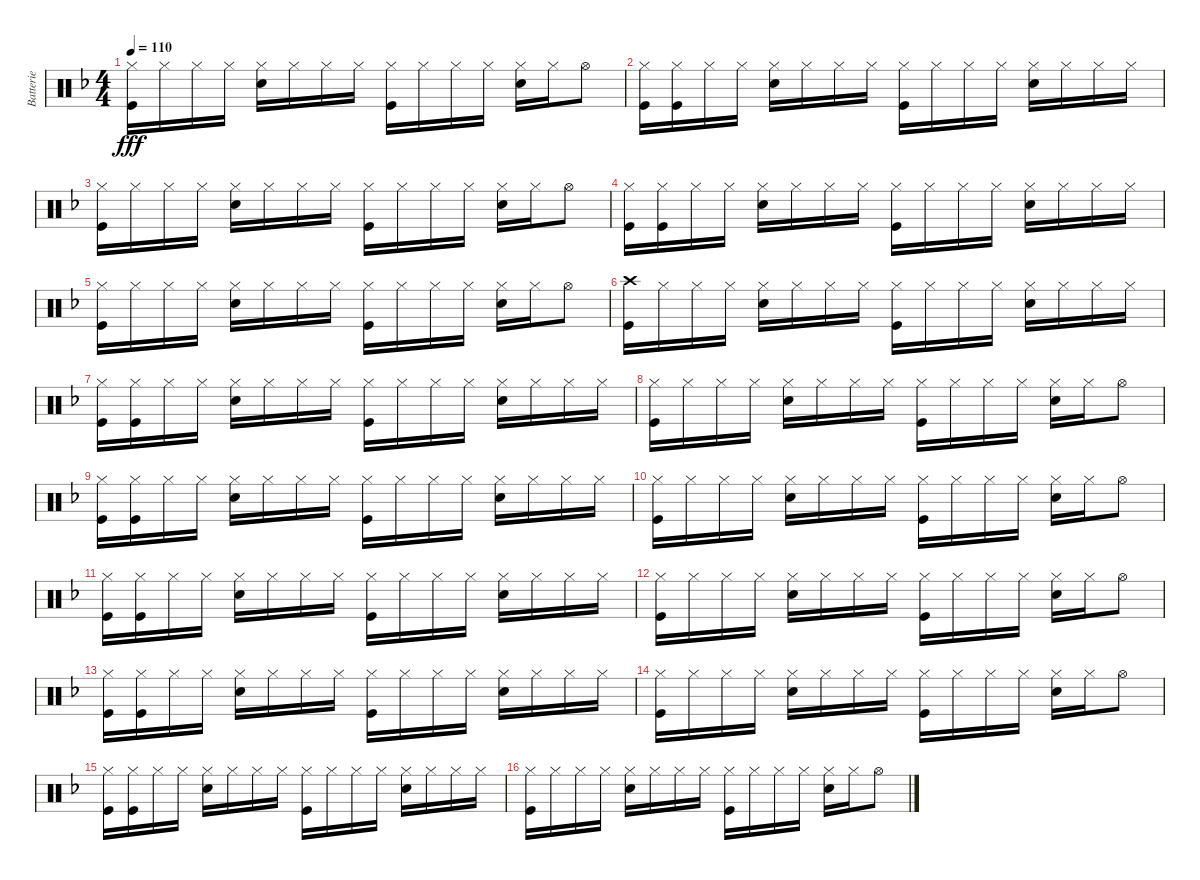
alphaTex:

\track ("Batterie" "Batterie") {instrument percussion}
\staff {score}
\articulation defaults
\ts (4 4)
\tempo 110
\clef neutral
\ks f
("Hi-Hat (closed)" "Kick (hit)").16{dy fff} "Hi-Hat (closed)".16 "Hi-Hat (closed)".16 "Hi-Hat (closed)".16 ("Hi-Hat (closed)" "Snare (hit) 2").16 "Hi-Hat (closed)".16 "Hi-Hat (closed)".16 "Hi-Hat (closed)".16 ("Hi-Hat (closed)" "Kick (hit)").16 "Hi-Hat (closed)".16 "Hi-Hat (closed)".16 "Hi-Hat (closed)".16 ("Hi-Hat (closed)" "Snare (hit) 2").16 "Hi-Hat (closed)".16 "Hi-Hat (open)".8 |
("Hi-Hat (closed)" "Kick (hit)").16 ("Hi-Hat (closed)" "Kick (hit)").16 "Hi-Hat (closed)".16 "Hi-Hat (closed)".16 ("Hi-Hat (closed)" "Snare (hit) 2").16 "Hi-Hat (closed)".16 "Hi-Hat (closed)".16 "Hi-Hat (closed)".16 ("Hi-Hat (closed)" "Kick (hit)").16 "Hi-Hat (closed)".16 "Hi-Hat (closed)".16 "Hi-Hat (closed)".16 ("Hi-Hat (closed)" "Snare (hit) 2").16 "Hi-Hat (closed)".16 "Hi-Hat (closed)".16 "Hi-Hat (closed)".16 |
("Hi-Hat (closed)" "Kick (hit)").16 "Hi-Hat (closed)".16 "Hi-Hat (closed)".16 "Hi-Hat (closed)".16 ("Hi-Hat (closed)" "Snare (hit) 2").16 "Hi-Hat (closed)".16 "Hi-Hat (closed)".16 "Hi-Hat (closed)".16 ("Hi-Hat (closed)" "Kick (hit)").16 "Hi-Hat (closed)".16 "Hi-Hat (closed)".16 "Hi-Hat (closed)".16 ("Hi-Hat (closed)" "Snare (hit) 2").16 "Hi-Hat (closed)".16 "Hi-Hat (open)".8 |
("Hi-Hat (closed)" "Kick (hit)").16 ("Hi-Hat (closed)" "Kick (hit)").16 "Hi-Hat (closed)".16 "Hi-Hat (closed)".16 ("Hi-Hat (closed)" "Snare (hit) 2").16 "Hi-Hat (closed)".16 "Hi-Hat (closed)".16 "Hi-Hat (closed)".16 ("Hi-Hat (closed)" "Kick (hit)").16 "Hi-Hat (closed)".16 "Hi-Hat (closed)".16 "Hi-Hat (closed)".16 ("Hi-Hat (closed)" "Snare (hit) 2").16 "Hi-Hat (closed)".16 "Hi-Hat (closed)".16 "Hi-Hat (closed)".16 |
("Hi-Hat (closed)" "Kick (hit)").16 "Hi-Hat (closed)".16 "Hi-Hat (closed)".16 "Hi-Hat (closed)".16 ("Hi-Hat (closed)" "Snare (hit) 2").16 "Hi-Hat (closed)".16 "Hi-Hat (closed)".16 "Hi-Hat (closed)".16 ("Hi-Hat (closed)" "Kick (hit)").16 "Hi-Hat (closed)".16 "Hi-Hat (closed)".16 "Hi-Hat (closed)".16 ("Hi-Hat (closed)" "Snare (hit) 2").16 "Hi-Hat (closed)".16 "Hi-Hat (open)".8 |
("Crash high (hit)" "Kick (hit)").16 "Hi-Hat (closed)".16 "Hi-Hat (closed)".16 "Hi-Hat (closed)".16 ("Hi-Hat (closed)" "Snare (hit) 2").16 "Hi-Hat (closed)".16 "Hi-Hat (closed)".16 "Hi-Hat (closed)".16 ("Hi-Hat (closed)" "Kick (hit)").16 "Hi-Hat (closed)".16 "Hi-Hat (closed)".16 "Hi-Hat (closed)".16 ("Hi-Hat (closed)" "Snare (hit) 2").16 "Hi-Hat (closed)".16 "Hi-Hat (closed)".16 "Hi-Hat (closed)".16 |
("Hi-Hat (closed)" "Kick (hit)").16 ("Hi-Hat (closed)" "Kick (hit)").16 "Hi-Hat (closed)".16 "Hi-Hat (closed)".16 ("Hi-Hat (closed)" "Snare (hit) 2").16 "Hi-Hat (closed)".16 "Hi-Hat (closed)".16 "Hi-Hat (closed)".16 ("Hi-Hat (closed)" "Kick (hit)").16 "Hi-Hat (closed)".16 "Hi-Hat (closed)".16 "Hi-Hat (closed)".16 ("Hi-Hat (closed)" "Snare (hit) 2").16 "Hi-Hat (closed)".16 "Hi-Hat (closed)".16 "Hi-Hat (closed)".16 |
("Hi-Hat (closed)" "Kick (hit)").16 "Hi-Hat (closed)".16 "Hi-Hat (closed)".16 "Hi-Hat (closed)".16 ("Hi-Hat (closed)" "Snare (hit) 2").16 "Hi-Hat (closed)".16 "Hi-Hat (closed)".16 "Hi-Hat (closed)".16 ("Hi-Hat (closed)" "Kick (hit)").16 "Hi-Hat (closed)".16 "Hi-Hat (closed)".16 "Hi-Hat (closed)".16 ("Hi-Hat (closed)" "Snare (hit) 2").16 "Hi-Hat (closed)".16 "Hi-Hat (open)".8 |
("Hi-Hat (closed)" "Kick (hit)").16 ("Hi-Hat (closed)" "Kick (hit)").16 "Hi-Hat (closed)".16 "Hi-Hat (closed)".16 ("Hi-Hat (closed)" "Snare (hit) 2").16 "Hi-Hat (closed)".16 "Hi-Hat (closed)".16 "Hi-Hat (closed)".16 ("Hi-Hat (closed)" "Kick (hit)").16 "Hi-Hat (closed)".16 "Hi-Hat (closed)".16 "Hi-Hat (closed)".16 ("Hi-Hat (closed)" "Snare (hit) 2").16 "Hi-Hat (closed)".16 "Hi-Hat (closed)".16 "Hi-Hat (closed)".16 |
("Hi-Hat (closed)" "Kick (hit)").16 "Hi-Hat (closed)".16 "Hi-Hat (closed)".16 "Hi-Hat (closed)".16 ("Hi-Hat (closed)" "Snare (hit) 2").16 "Hi-Hat (closed)".16 "Hi-Hat (closed)".16 "Hi-Hat (closed)".16 ("Hi-Hat (closed)" "Kick (hit)").16 "Hi-Hat (closed)".16 "Hi-Hat (closed)".16 "Hi-Hat (closed)".16 ("Hi-Hat (closed)" "Snare (hit) 2").16 "Hi-Hat (closed)".16 "Hi-Hat (open)".8 |
("Hi-Hat (closed)" "Kick (hit)").16 ("Hi-Hat (closed)" "Kick (hit)").16 "Hi-Hat (closed)".16 "Hi-Hat (closed)".16 ("Hi-Hat (closed)" "Snare (hit) 2").16 "Hi-Hat (closed)".16 "Hi-Hat (closed)".16 "Hi-Hat (closed)".16 ("Hi-Hat (closed)" "Kick (hit)").16 "Hi-Hat (closed)".16 "Hi-Hat (closed)".16 "Hi-Hat (closed)".16 ("Hi-Hat (closed)" "Snare (hit) 2").16 "Hi-Hat (closed)".16 "Hi-Hat (closed)".16 "Hi-Hat (closed)".16 |
("Hi-Hat (closed)" "Kick (hit)").16 "Hi-Hat (closed)".16 "Hi-Hat (closed)".16 "Hi-Hat (closed)".16 ("Hi-Hat (closed)" "Snare (hit) 2").16 "Hi-Hat (closed)".16 "Hi-Hat (closed)".16 "Hi-Hat (closed)".16 ("Hi-Hat (closed)" "Kick (hit)").16 "Hi-Hat (closed)".16 "Hi-Hat (closed)".16 "Hi-Hat (closed)".16 ("Hi-Hat (closed)" "Snare (hit) 2").16 "Hi-Hat (closed)".16 "Hi-Hat (open)".8 |
("Hi-Hat (closed)" "Kick (hit)").16 ("Hi-Hat (closed)" "Kick (hit)").16 "Hi-Hat (closed)".16 "Hi-Hat (closed)".16 ("Hi-Hat (closed)" "Snare (hit) 2").16 "Hi-Hat (closed)".16 "Hi-Hat (closed)".16 "Hi-Hat (closed)".16 ("Hi-Hat (closed)" "Kick (hit)").16 "Hi-Hat (closed)".16 "Hi-Hat (closed)".16 "Hi-Hat (closed)".16 ("Hi-Hat (closed)" "Snare (hit) 2").16 "Hi-Hat (closed)".16 "Hi-Hat (closed)".16 "Hi-Hat (closed)".16 |
("Hi-Hat (closed)" "Kick (hit)").16 "Hi-Hat (closed)".16 "Hi-Hat (closed)".16 "Hi-Hat (closed)".16 ("Hi-Hat (closed)" "Snare (hit) 2").16 "Hi-Hat (closed)".16 "Hi-Hat (closed)".16 "Hi-Hat (closed)".16 ("Hi-Hat (closed)" "Kick (hit)").16 "Hi-Hat (closed)".16 "Hi-Hat (closed)".16 "Hi-Hat (closed)".16 ("Hi-Hat (closed)" "Snare (hit) 2").16 "Hi-Hat (closed)".16 "Hi-Hat (open)".8 |
("Hi-Hat (closed)" "Kick (hit)").16 ("Hi-Hat (closed)" "Kick (hit)").16 "Hi-Hat (closed)".16 "Hi-Hat (closed)".16 ("Hi-Hat (closed)" "Snare (hit) 2").16 "Hi-Hat (closed)".16 "Hi-Hat (closed)".16 "Hi-Hat (closed)".16 ("Hi-Hat (closed)" "Kick (hit)").16 "Hi-Hat (closed)".16 "Hi-Hat (closed)".16 "Hi-Hat (closed)".16 ("Hi-Hat (closed)" "Snare (hit) 2").16 "Hi-Hat (closed)".16 "Hi-Hat (closed)".16 "Hi-Hat (closed)".16 |
("Hi-Hat (closed)" "Kick (hit)").16 "Hi-Hat (closed)".16 "Hi-Hat (closed)".16 "Hi-Hat (closed)".16 ("Hi-Hat (closed)" "Snare (hit) 2").16 "Hi-Hat (closed)".16 "Hi-Hat (closed)".16 "Hi-Hat (closed)".16 ("Hi-Hat (closed)" "Kick (hit)").16 "Hi-Hat (closed)".16 "Hi-Hat (closed)".16 "Hi-Hat (closed)".16 ("Hi-Hat (closed)" "Snare (hit) 2").16 "Hi-Hat (closed)".16 "Hi-Hat (open)".8
